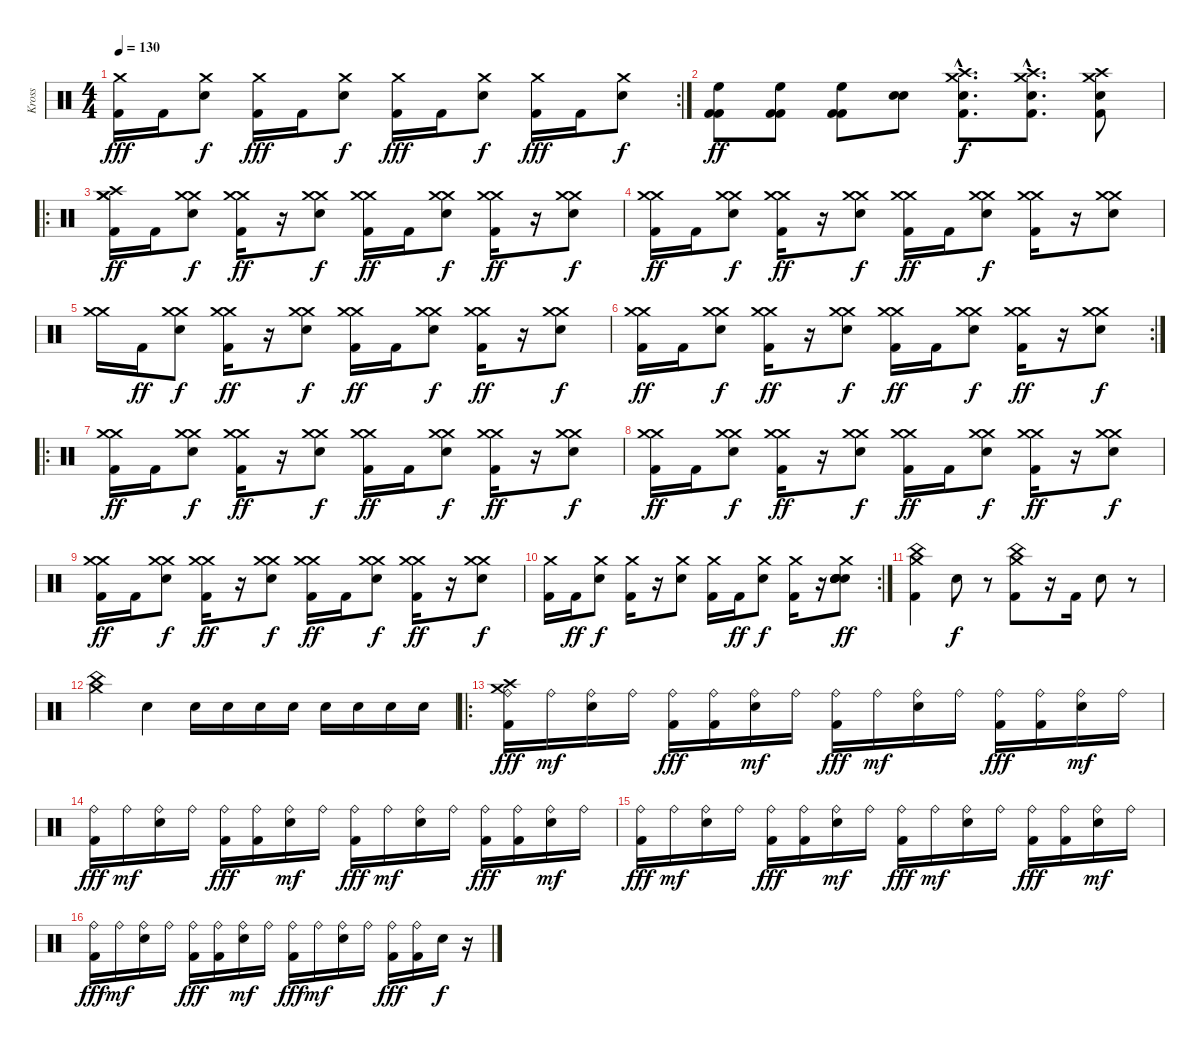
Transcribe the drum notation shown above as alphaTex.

\track ("Kross" "Kross") {instrument percussion}
\staff {score}
\articulation defaults
\rc 2
\ts (4 4)
\tempo 130
\clef neutral
\ks c
("Kick (hit) 2" "Crash medium (hit)").16{dy fff} "Kick (hit) 2".16 ("Crash medium (hit)" "Snare (hit) 2").8{dy f} ("Kick (hit) 2" "Crash medium (hit)").16{dy fff} "Kick (hit) 2".16 ("Crash medium (hit)" "Snare (hit) 2").8{dy f} ("Kick (hit) 2" "Crash medium (hit)").16{dy fff} "Kick (hit) 2".16 ("Crash medium (hit)" "Snare (hit) 2").8{dy f} ("Kick (hit) 2" "Crash medium (hit)").16{dy fff} "Kick (hit) 2".16 ("Crash medium (hit)" "Snare (hit) 2").8{dy f} |
("High Floor Tom (hit)" "Kick (hit) 2" "Kick (hit) 2").8{dy ff} ("High Floor Tom (hit)" "Kick (hit) 2" "Kick (hit) 2").8 ("High Floor Tom (hit)" "Kick (hit) 2" "Kick (hit) 2").8 ("Snare (hit) 2" "Snare (hit) 2").8 ("Kick (hit) 2"{hac} "Crash high (hit)"{hac} "Crash medium (hit)"{hac} "Snare (hit) 2"{hac}).8{d dy f} ("Kick (hit) 2"{hac} "Crash high (hit)"{hac} "Crash medium (hit)"{hac} "Snare (hit) 2"{hac}).8{d} ("Kick (hit) 2" "Crash high (hit)" "Crash medium (hit)" "Snare (hit) 2").8 |
\ro
("Crash high (hit)" "Kick (hit) 2" "Crash medium (hit)" "Crash medium (hit)").16{dy ff} "Kick (hit) 2".16 ("Crash medium (hit)" "Crash medium (hit)" "Snare (hit) 2").8{dy f} ("Kick (hit) 2" "Crash medium (hit)" "Crash medium (hit)").16{dy ff} r.16 ("Crash medium (hit)" "Crash medium (hit)" "Snare (hit) 2").8{dy f} ("Kick (hit) 2" "Crash medium (hit)" "Crash medium (hit)").16{dy ff} "Kick (hit) 2".16 ("Crash medium (hit)" "Crash medium (hit)" "Snare (hit) 2").8{dy f} ("Kick (hit) 2" "Crash medium (hit)" "Crash medium (hit)").16{dy ff} r.16 ("Crash medium (hit)" "Crash medium (hit)" "Snare (hit) 2").8{dy f} |
("Kick (hit) 2" "Crash medium (hit)" "Crash medium (hit)").16{dy ff} "Kick (hit) 2".16 ("Crash medium (hit)" "Crash medium (hit)" "Snare (hit) 2").8{dy f} ("Kick (hit) 2" "Crash medium (hit)" "Crash medium (hit)").16{dy ff} r.16 ("Crash medium (hit)" "Crash medium (hit)" "Snare (hit) 2").8{dy f} ("Kick (hit) 2" "Crash medium (hit)" "Crash medium (hit)").16{dy ff} "Kick (hit) 2".16 ("Crash medium (hit)" "Crash medium (hit)" "Snare (hit) 2").8{dy f} ("Kick (hit) 2" "Crash medium (hit)" "Crash medium (hit)").16 r.16 ("Crash medium (hit)" "Crash medium (hit)" "Snare (hit) 2").8 |
("Crash medium (hit)" "Crash medium (hit)").16 "Kick (hit) 2".16{dy ff} ("Crash medium (hit)" "Crash medium (hit)" "Snare (hit) 2").8{dy f} ("Kick (hit) 2" "Crash medium (hit)" "Crash medium (hit)").16{dy ff} r.16 ("Crash medium (hit)" "Crash medium (hit)" "Snare (hit) 2").8{dy f} ("Kick (hit) 2" "Crash medium (hit)" "Crash medium (hit)").16{dy ff} "Kick (hit) 2".16 ("Crash medium (hit)" "Crash medium (hit)" "Snare (hit) 2").8{dy f} ("Kick (hit) 2" "Crash medium (hit)" "Crash medium (hit)").16{dy ff} r.16 ("Crash medium (hit)" "Crash medium (hit)" "Snare (hit) 2").8{dy f} |
\rc 2
("Kick (hit) 2" "Crash medium (hit)" "Crash medium (hit)").16{dy ff} "Kick (hit) 2".16 ("Crash medium (hit)" "Crash medium (hit)" "Snare (hit) 2").8{dy f} ("Kick (hit) 2" "Crash medium (hit)" "Crash medium (hit)").16{dy ff} r.16 ("Crash medium (hit)" "Crash medium (hit)" "Snare (hit) 2").8{dy f} ("Kick (hit) 2" "Crash medium (hit)" "Crash medium (hit)").16{dy ff} "Kick (hit) 2".16 ("Crash medium (hit)" "Crash medium (hit)" "Snare (hit) 2").8{dy f} ("Kick (hit) 2" "Crash medium (hit)" "Crash medium (hit)").16{dy ff} r.16 ("Crash medium (hit)" "Crash medium (hit)" "Snare (hit) 2").8{dy f} |
\ro
("Kick (hit) 2" "Crash medium (hit)" "Crash medium (hit)").16{dy ff} "Kick (hit) 2".16 ("Crash medium (hit)" "Crash medium (hit)" "Snare (hit) 2").8{dy f} ("Kick (hit) 2" "Crash medium (hit)" "Crash medium (hit)").16{dy ff} r.16 ("Crash medium (hit)" "Crash medium (hit)" "Snare (hit) 2").8{dy f} ("Kick (hit) 2" "Crash medium (hit)" "Crash medium (hit)").16{dy ff} "Kick (hit) 2".16 ("Crash medium (hit)" "Crash medium (hit)" "Snare (hit) 2").8{dy f} ("Kick (hit) 2" "Crash medium (hit)" "Crash medium (hit)").16{dy ff} r.16 ("Crash medium (hit)" "Crash medium (hit)" "Snare (hit) 2").8{dy f} |
("Kick (hit) 2" "Crash medium (hit)" "Crash medium (hit)").16{dy ff} "Kick (hit) 2".16 ("Crash medium (hit)" "Crash medium (hit)" "Snare (hit) 2").8{dy f} ("Kick (hit) 2" "Crash medium (hit)" "Crash medium (hit)").16{dy ff} r.16 ("Crash medium (hit)" "Crash medium (hit)" "Snare (hit) 2").8{dy f} ("Kick (hit) 2" "Crash medium (hit)" "Crash medium (hit)").16{dy ff} "Kick (hit) 2".16 ("Crash medium (hit)" "Crash medium (hit)" "Snare (hit) 2").8{dy f} ("Kick (hit) 2" "Crash medium (hit)" "Crash medium (hit)").16{dy ff} r.16 ("Crash medium (hit)" "Crash medium (hit)" "Snare (hit) 2").8{dy f} |
("Kick (hit) 2" "Crash medium (hit)" "Crash medium (hit)").16{dy ff} "Kick (hit) 2".16 ("Crash medium (hit)" "Crash medium (hit)" "Snare (hit) 2").8{dy f} ("Kick (hit) 2" "Crash medium (hit)" "Crash medium (hit)").16{dy ff} r.16 ("Crash medium (hit)" "Crash medium (hit)" "Snare (hit) 2").8{dy f} ("Kick (hit) 2" "Crash medium (hit)" "Crash medium (hit)").16{dy ff} "Kick (hit) 2".16 ("Crash medium (hit)" "Crash medium (hit)" "Snare (hit) 2").8{dy f} ("Kick (hit) 2" "Crash medium (hit)" "Crash medium (hit)").16{dy ff} r.16 ("Crash medium (hit)" "Crash medium (hit)" "Snare (hit) 2").8{dy f} |
\rc 2
("Kick (hit) 2" "Crash medium (hit)").16 "Kick (hit) 2".16{dy ff} ("Crash medium (hit)" "Snare (hit) 2").8{dy f} ("Kick (hit) 2" "Crash medium (hit)").16 r.16 ("Crash medium (hit)" "Snare (hit) 2").8 ("Kick (hit) 2" "Crash medium (hit)").16 "Kick (hit) 2".16{dy ff} ("Crash medium (hit)" "Snare (hit) 2").8{dy f} ("Kick (hit) 2" "Crash medium (hit)").16 r.16 ("Snare (hit) 2" "Snare (hit) 2" "Snare (hit) 2" "Snare (hit) 2" "Crash medium (hit)" "Snare (hit) 2").8{dy ff} |
("Kick (hit) 2" "China (hit)" "Crash medium (hit)").4 "Snare (hit) 2".8{dy f} r.8 ("Crash medium (hit)" "China (hit)" "Kick (hit) 2").8 r.16 "Kick (hit) 2".16 "Snare (hit) 2".8 r.8 |
("China (hit)" "Crash medium (hit)").4 "Snare (hit) 2".4 "Snare (hit) 2".16 "Snare (hit) 2".16 "Snare (hit) 2".16 "Snare (hit) 2".16 "Snare (hit) 2".16 "Snare (hit) 2".16 "Snare (hit) 2".16 "Snare (hit) 2".16 |
\ro
("Crash high (hit)" "Crash medium (hit)" "Ride (bell)" "Kick (hit) 2").16{dy fff} "Ride (bell)".16{dy mf} ("Ride (bell)" "Snare (hit) 2").16 "Ride (bell)".16 ("Ride (bell)" "Kick (hit) 2").16{dy fff} ("Ride (bell)" "Kick (hit) 2").16 ("Ride (bell)" "Snare (hit) 2").16{dy mf} "Ride (bell)".16 ("Ride (bell)" "Kick (hit) 2").16{dy fff} "Ride (bell)".16{dy mf} ("Ride (bell)" "Snare (hit) 2").16 "Ride (bell)".16 ("Ride (bell)" "Kick (hit) 2").16{dy fff} ("Ride (bell)" "Kick (hit) 2").16 ("Ride (bell)" "Snare (hit) 2").16{dy mf} "Ride (bell)".16 |
("Ride (bell)" "Kick (hit) 2").16{dy fff} "Ride (bell)".16{dy mf} ("Ride (bell)" "Snare (hit) 2").16 "Ride (bell)".16 ("Ride (bell)" "Kick (hit) 2").16{dy fff} ("Ride (bell)" "Kick (hit) 2").16 ("Ride (bell)" "Snare (hit) 2").16{dy mf} "Ride (bell)".16 ("Ride (bell)" "Kick (hit) 2").16{dy fff} "Ride (bell)".16{dy mf} ("Ride (bell)" "Snare (hit) 2").16 "Ride (bell)".16 ("Ride (bell)" "Kick (hit) 2").16{dy fff} ("Ride (bell)" "Kick (hit) 2").16 ("Ride (bell)" "Snare (hit) 2").16{dy mf} "Ride (bell)".16 |
("Ride (bell)" "Kick (hit) 2").16{dy fff} "Ride (bell)".16{dy mf} ("Ride (bell)" "Snare (hit) 2").16 "Ride (bell)".16 ("Ride (bell)" "Kick (hit) 2").16{dy fff} ("Ride (bell)" "Kick (hit) 2").16 ("Ride (bell)" "Snare (hit) 2").16{dy mf} "Ride (bell)".16 ("Ride (bell)" "Kick (hit) 2").16{dy fff} "Ride (bell)".16{dy mf} ("Ride (bell)" "Snare (hit) 2").16 "Ride (bell)".16 ("Ride (bell)" "Kick (hit) 2").16{dy fff} ("Ride (bell)" "Kick (hit) 2").16 ("Ride (bell)" "Snare (hit) 2").16{dy mf} "Ride (bell)".16 |
("Ride (bell)" "Kick (hit) 2").16{dy fff} "Ride (bell)".16{dy mf} ("Ride (bell)" "Snare (hit) 2").16 "Ride (bell)".16 ("Ride (bell)" "Kick (hit) 2").16{dy fff} ("Ride (bell)" "Kick (hit) 2").16 ("Ride (bell)" "Snare (hit) 2").16{dy mf} "Ride (bell)".16 ("Ride (bell)" "Kick (hit) 2").16{dy fff} "Ride (bell)".16{dy mf} ("Ride (bell)" "Snare (hit) 2").16 "Ride (bell)".16 ("Ride (bell)" "Kick (hit) 2").16{dy fff} ("Ride (bell)" "Kick (hit) 2").16 "Snare (hit) 2".16{dy f} r.16
